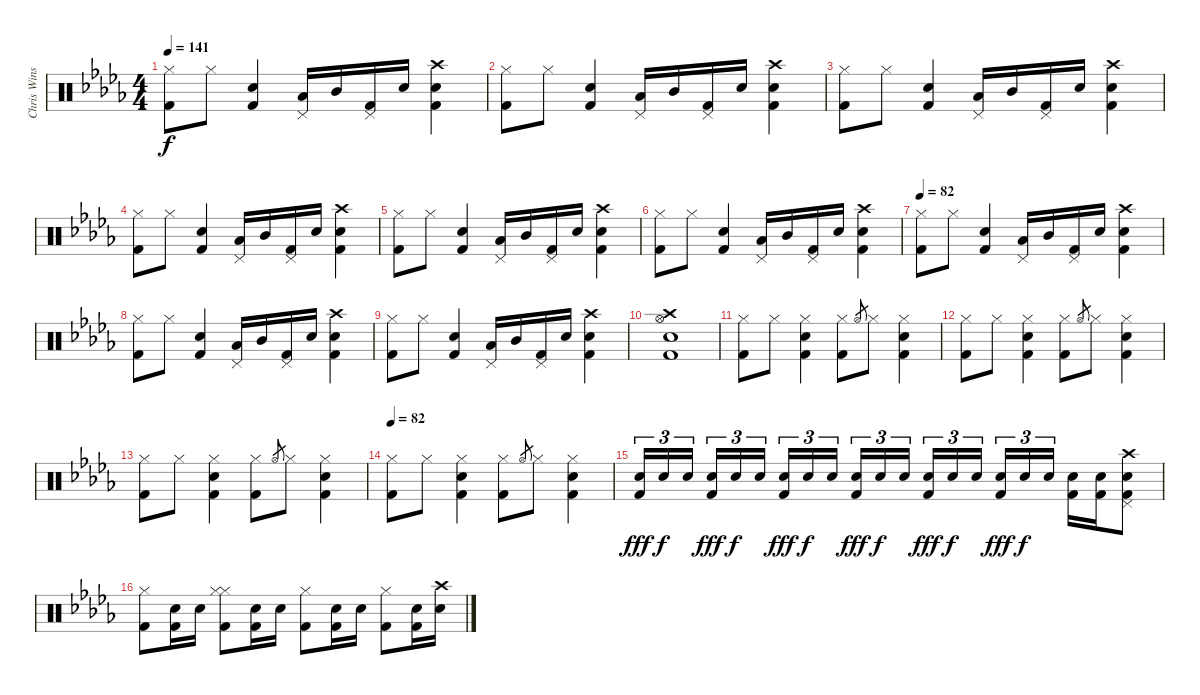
\track ("Chris Winship (Drums)" "Chris Wins") {instrument percussion}
\staff {score}
\articulation defaults
\ts (4 4)
\tempo 141
\clef neutral
\ks db
("Hi-Hat (closed)" "Kick (hit) 2").8{dy f} "Hi-Hat (closed)".8 ("Electric Snare (hit)" "Kick (hit) 2").4 ("Pedal Hi-Hat (hit)" "Low Tom (hit)").16 "Mid Tom (hit)".16 ("Pedal Hi-Hat (hit)" "Kick (hit) 2").16 "Electric Snare (hit)".16 ("Crash high (hit)" "Kick (hit) 2" "Electric Snare (hit)").4 |
("Hi-Hat (closed)" "Kick (hit) 2").8 "Hi-Hat (closed)".8 ("Electric Snare (hit)" "Kick (hit) 2").4 ("Pedal Hi-Hat (hit)" "Low Tom (hit)").16 "Mid Tom (hit)".16 ("Pedal Hi-Hat (hit)" "Kick (hit) 2").16 "Electric Snare (hit)".16 ("Crash high (hit)" "Kick (hit) 2" "Electric Snare (hit)").4 |
("Hi-Hat (closed)" "Kick (hit) 2").8 "Hi-Hat (closed)".8 ("Electric Snare (hit)" "Kick (hit) 2").4 ("Pedal Hi-Hat (hit)" "Low Tom (hit)").16 "Mid Tom (hit)".16 ("Pedal Hi-Hat (hit)" "Kick (hit) 2").16 "Electric Snare (hit)".16 ("Crash high (hit)" "Kick (hit) 2" "Electric Snare (hit)").4 |
("Hi-Hat (closed)" "Kick (hit) 2").8 "Hi-Hat (closed)".8 ("Electric Snare (hit)" "Kick (hit) 2").4 ("Pedal Hi-Hat (hit)" "Low Tom (hit)").16 "Mid Tom (hit)".16 ("Pedal Hi-Hat (hit)" "Kick (hit) 2").16 "Electric Snare (hit)".16 ("Crash high (hit)" "Kick (hit) 2" "Electric Snare (hit)").4 |
("Hi-Hat (closed)" "Kick (hit) 2").8 "Hi-Hat (closed)".8 ("Electric Snare (hit)" "Kick (hit) 2").4 ("Pedal Hi-Hat (hit)" "Low Tom (hit)").16 "Mid Tom (hit)".16 ("Pedal Hi-Hat (hit)" "Kick (hit) 2").16 "Electric Snare (hit)".16 ("Crash high (hit)" "Kick (hit) 2" "Electric Snare (hit)").4 |
("Hi-Hat (closed)" "Kick (hit) 2").8 "Hi-Hat (closed)".8 ("Electric Snare (hit)" "Kick (hit) 2").4 ("Pedal Hi-Hat (hit)" "Low Tom (hit)").16 "Mid Tom (hit)".16 ("Pedal Hi-Hat (hit)" "Kick (hit) 2").16 "Electric Snare (hit)".16 ("Crash high (hit)" "Kick (hit) 2" "Electric Snare (hit)").4 |
\tempo 82
("Hi-Hat (closed)" "Kick (hit) 2").8 "Hi-Hat (closed)".8 ("Electric Snare (hit)" "Kick (hit) 2").4 ("Pedal Hi-Hat (hit)" "Low Tom (hit)").16 "Mid Tom (hit)".16 ("Pedal Hi-Hat (hit)" "Kick (hit) 2").16 "Electric Snare (hit)".16 ("Crash high (hit)" "Kick (hit) 2" "Electric Snare (hit)").4 |
("Hi-Hat (closed)" "Kick (hit) 2").8 "Hi-Hat (closed)".8 ("Electric Snare (hit)" "Kick (hit) 2").4 ("Pedal Hi-Hat (hit)" "Low Tom (hit)").16 "Mid Tom (hit)".16 ("Pedal Hi-Hat (hit)" "Kick (hit) 2").16 "Electric Snare (hit)".16 ("Crash high (hit)" "Kick (hit) 2" "Electric Snare (hit)").4 |
("Hi-Hat (closed)" "Kick (hit) 2").8 "Hi-Hat (closed)".8 ("Electric Snare (hit)" "Kick (hit) 2").4 ("Pedal Hi-Hat (hit)" "Low Tom (hit)").16 "Mid Tom (hit)".16 ("Pedal Hi-Hat (hit)" "Kick (hit) 2").16 "Electric Snare (hit)".16 ("Crash high (hit)" "Kick (hit) 2" "Electric Snare (hit)").4 |
("Kick (hit) 2" "Electric Snare (hit)" "Crash high (hit)" "Hi-Hat (open)").1 |
("Kick (hit) 2" "Hi-Hat (closed)").8 "Hi-Hat (closed)".8 ("Hi-Hat (closed)" "Kick (hit) 2" "Electric Snare (hit)").4 ("Kick (hit) 2" "Hi-Hat (closed)").8 "Hi-Hat (open)".8{gr} "Hi-Hat (closed)".8 ("Hi-Hat (closed)" "Kick (hit) 2" "Electric Snare (hit)").4 |
("Kick (hit) 2" "Hi-Hat (closed)").8 "Hi-Hat (closed)".8 ("Hi-Hat (closed)" "Kick (hit) 2" "Electric Snare (hit)").4 ("Kick (hit) 2" "Hi-Hat (closed)").8 "Hi-Hat (open)".8{gr} "Hi-Hat (closed)".8 ("Hi-Hat (closed)" "Kick (hit) 2" "Electric Snare (hit)").4 |
("Kick (hit) 2" "Hi-Hat (closed)").8 "Hi-Hat (closed)".8 ("Hi-Hat (closed)" "Kick (hit) 2" "Electric Snare (hit)").4 ("Kick (hit) 2" "Hi-Hat (closed)").8 "Hi-Hat (open)".8{gr} "Hi-Hat (closed)".8 ("Hi-Hat (closed)" "Kick (hit) 2" "Electric Snare (hit)").4 |
\tempo 82
("Kick (hit) 2" "Hi-Hat (closed)").8 "Hi-Hat (closed)".8 ("Hi-Hat (closed)" "Kick (hit) 2" "Electric Snare (hit)").4 ("Kick (hit) 2" "Hi-Hat (closed)").8 "Hi-Hat (open)".8{gr} "Hi-Hat (closed)".8 ("Hi-Hat (closed)" "Kick (hit) 2" "Electric Snare (hit)").4 |
("Electric Snare (hit)" "Kick (hit) 2").16{tu (3 2) dy fff} "Electric Snare (hit)".16{tu (3 2) dy f} "Electric Snare (hit)".16{tu (3 2)} ("Electric Snare (hit)" "Kick (hit) 2").16{tu (3 2) dy fff} "Electric Snare (hit)".16{tu (3 2) dy f} "Electric Snare (hit)".16{tu (3 2)} ("Electric Snare (hit)" "Kick (hit) 2").16{tu (3 2) dy fff} "Electric Snare (hit)".16{tu (3 2) dy f} "Electric Snare (hit)".16{tu (3 2)} ("Electric Snare (hit)" "Kick (hit) 2").16{tu (3 2) dy fff} "Electric Snare (hit)".16{tu (3 2) dy f} "Electric Snare (hit)".16{tu (3 2)} ("Electric Snare (hit)" "Kick (hit) 2").16{tu (3 2) dy fff} "Electric Snare (hit)".16{tu (3 2) dy f} "Electric Snare (hit)".16{tu (3 2)} ("Electric Snare (hit)" "Kick (hit) 2").16{tu (3 2) dy fff} "Electric Snare (hit)".16{tu (3 2) dy f} "Electric Snare (hit)".16{tu (3 2)} ("Kick (hit) 2" "Electric Snare (hit)").16 ("Kick (hit) 2" "Electric Snare (hit)").16 ("Crash high (hit)" "Electric Snare (hit)" "Kick (hit) 2" "Pedal Hi-Hat (hit)").8 |
("Kick (hit) 2" "Hi-Hat (closed)").8 ("Kick (hit) 2" "Electric Snare (hit)").16 "Electric Snare (hit)".16 ("Hi-Hat (closed)" "Kick (hit) 2" "Hi-Hat (closed)").8 ("Kick (hit) 2" "Electric Snare (hit)").16 "Electric Snare (hit)".16 ("Kick (hit) 2" "Hi-Hat (closed)").8 ("Kick (hit) 2" "Electric Snare (hit)").16 "Electric Snare (hit)".16 ("Kick (hit) 2" "Hi-Hat (closed)").8 ("Kick (hit) 2" "Electric Snare (hit)").16 ("Crash high (hit)" "Electric Snare (hit)").16
